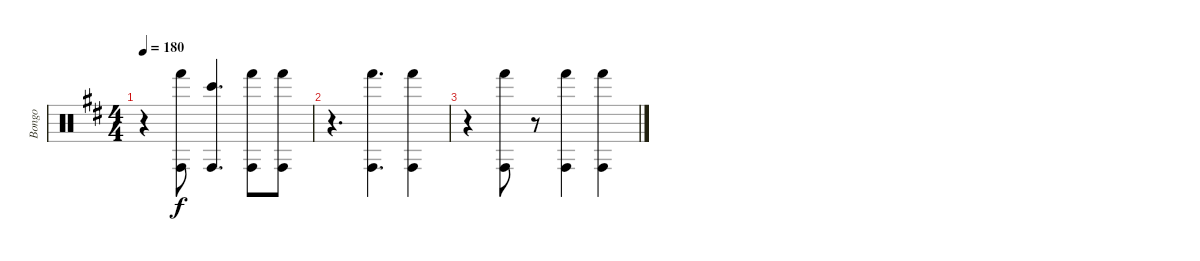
\track ("Bongo" "Bongo") {instrument percussion}
\staff {score}
\articulation defaults
\ts (4 4)
\tempo 180
\clef neutral
\ks d
r.4{dy f} ("Hand (hit)" "Conga high (hit)").8 ("Bongo High (hit)" "Conga high (hit)").4{d} ("Hand (hit)" "Conga high (hit)").8 ("Hand (hit)" "Conga high (hit)").8 |
r.4{d} ("Hand (hit)" "Conga high (hit)").4{d} ("Hand (hit)" "Conga high (hit)").4 |
r.4 ("Hand (hit)" "Conga high (hit)").8 r.8 ("Hand (hit)" "Conga high (hit)").4 ("Hand (hit)" "Conga high (hit)").4
